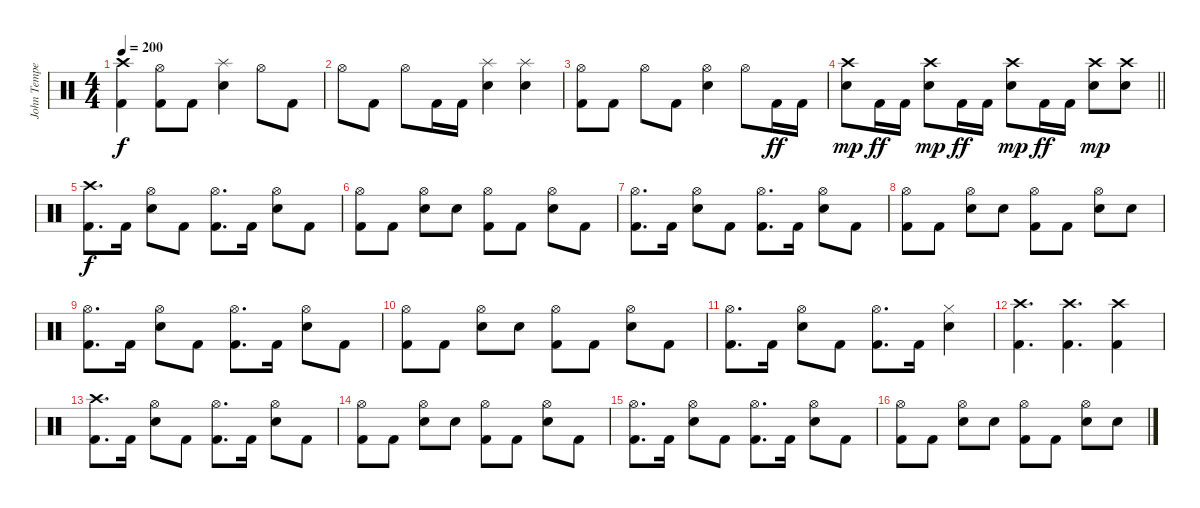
\track ("John Tempesta" "John Tempe") {instrument percussion}
\staff {score}
\articulation defaults
\ts (4 4)
\tempo 200
\clef neutral
\ks c
("Crash high (hit)" "Kick (hit) 2").4{dy f} ("Hi-Hat (open)" "Kick (hit) 2").8 "Kick (hit) 2".8 ("Electric Snare (hit)" "Splash (hit)").4 "Hi-Hat (open)".8 "Kick (hit) 2".8 |
"Hi-Hat (open)".8 "Kick (hit) 2".8 "Hi-Hat (open)".8 "Kick (hit) 2".16 "Kick (hit) 2".16 ("Electric Snare (hit)" "Splash (hit)").4 ("Electric Snare (hit)" "Splash (hit)").4 |
("Hi-Hat (open)" "Kick (hit) 2").8 "Kick (hit) 2".8 "Hi-Hat (open)".8 "Kick (hit) 2".8 ("Electric Snare (hit)" "Hi-Hat (open)").4 "Hi-Hat (open)".8 "Kick (hit) 2".16{dy ff} "Kick (hit) 2".16 |
\barLineRight lightlight
("Electric Snare (hit)" "Crash high (hit)").8{dy mp} "Kick (hit) 2".16{dy ff} "Kick (hit) 2".16 ("Electric Snare (hit)" "Crash high (hit)").8{dy mp} "Kick (hit) 2".16{dy ff} "Kick (hit) 2".16 ("Electric Snare (hit)" "Crash high (hit)").8{dy mp} "Kick (hit) 2".16{dy ff} "Kick (hit) 2".16 ("Electric Snare (hit)" "Crash high (hit)").8{dy mp} ("Electric Snare (hit)" "Crash high (hit)").8 |
("Crash high (hit)" "Kick (hit) 2").8{d dy f} "Kick (hit) 2".16 ("Electric Snare (hit)" "Hi-Hat (open)").8 "Kick (hit) 2".8 ("Hi-Hat (open)" "Kick (hit) 2").8{d} "Kick (hit) 2".16 ("Electric Snare (hit)" "Hi-Hat (open)").8 "Kick (hit) 2".8 |
("Hi-Hat (open)" "Kick (hit) 2").8 "Kick (hit) 2".8 ("Electric Snare (hit)" "Hi-Hat (open)").8 "Electric Snare (hit)".8 ("Hi-Hat (open)" "Kick (hit) 2").8 "Kick (hit) 2".8 ("Electric Snare (hit)" "Hi-Hat (open)").8 "Kick (hit) 2".8 |
("Hi-Hat (open)" "Kick (hit) 2").8{d} "Kick (hit) 2".16 ("Electric Snare (hit)" "Hi-Hat (open)").8 "Kick (hit) 2".8 ("Hi-Hat (open)" "Kick (hit) 2").8{d} "Kick (hit) 2".16 ("Electric Snare (hit)" "Hi-Hat (open)").8 "Kick (hit) 2".8 |
("Hi-Hat (open)" "Kick (hit) 2").8 "Kick (hit) 2".8 ("Electric Snare (hit)" "Hi-Hat (open)").8 "Electric Snare (hit)".8 ("Hi-Hat (open)" "Kick (hit) 2").8 "Kick (hit) 2".8 ("Electric Snare (hit)" "Hi-Hat (open)").8 "Electric Snare (hit)".8 |
("Hi-Hat (open)" "Kick (hit) 2").8{d} "Kick (hit) 2".16 ("Electric Snare (hit)" "Hi-Hat (open)").8 "Kick (hit) 2".8 ("Hi-Hat (open)" "Kick (hit) 2").8{d} "Kick (hit) 2".16 ("Electric Snare (hit)" "Hi-Hat (open)").8 "Kick (hit) 2".8 |
("Hi-Hat (open)" "Kick (hit) 2").8 "Kick (hit) 2".8 ("Electric Snare (hit)" "Hi-Hat (open)").8 "Electric Snare (hit)".8 ("Hi-Hat (open)" "Kick (hit) 2").8 "Kick (hit) 2".8 ("Electric Snare (hit)" "Hi-Hat (open)").8 "Kick (hit) 2".8 |
("Hi-Hat (open)" "Kick (hit) 2").8{d} "Kick (hit) 2".16 ("Electric Snare (hit)" "Hi-Hat (open)").8 "Kick (hit) 2".8 ("Hi-Hat (open)" "Kick (hit) 2").8{d} "Kick (hit) 2".16 ("Electric Snare (hit)" "Hi-Hat (closed)").4 |
("Crash high (hit)" "Kick (hit) 2").4{d} ("Crash high (hit)" "Kick (hit) 2").4{d} ("Crash high (hit)" "Kick (hit) 2").4 |
("Crash high (hit)" "Kick (hit) 2").8{d} "Kick (hit) 2".16 ("Electric Snare (hit)" "Hi-Hat (open)").8 "Kick (hit) 2".8 ("Hi-Hat (open)" "Kick (hit) 2").8{d} "Kick (hit) 2".16 ("Electric Snare (hit)" "Hi-Hat (open)").8 "Kick (hit) 2".8 |
("Hi-Hat (open)" "Kick (hit) 2").8 "Kick (hit) 2".8 ("Electric Snare (hit)" "Hi-Hat (open)").8 "Electric Snare (hit)".8 ("Hi-Hat (open)" "Kick (hit) 2").8 "Kick (hit) 2".8 ("Electric Snare (hit)" "Hi-Hat (open)").8 "Kick (hit) 2".8 |
("Hi-Hat (open)" "Kick (hit) 2").8{d} "Kick (hit) 2".16 ("Electric Snare (hit)" "Hi-Hat (open)").8 "Kick (hit) 2".8 ("Hi-Hat (open)" "Kick (hit) 2").8{d} "Kick (hit) 2".16 ("Electric Snare (hit)" "Hi-Hat (open)").8 "Kick (hit) 2".8 |
("Hi-Hat (open)" "Kick (hit) 2").8 "Kick (hit) 2".8 ("Electric Snare (hit)" "Hi-Hat (open)").8 "Electric Snare (hit)".8 ("Hi-Hat (open)" "Kick (hit) 2").8 "Kick (hit) 2".8 ("Electric Snare (hit)" "Hi-Hat (open)").8 "Electric Snare (hit)".8
